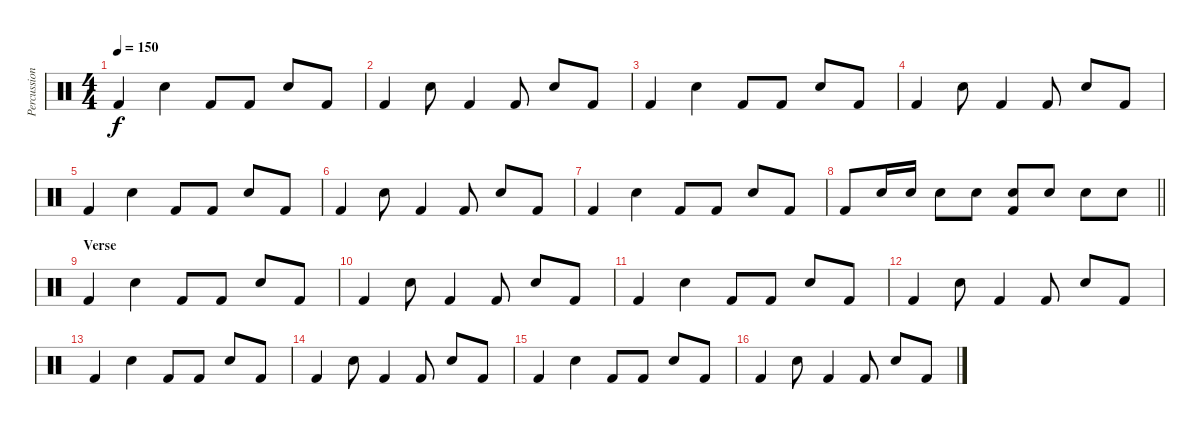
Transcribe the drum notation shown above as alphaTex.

\track ("Percussion" "Percussion") {instrument percussion}
\staff {score}
\articulation defaults
\ts (4 4)
\tempo 150
\clef neutral
\ks c "Kick (hit) 2".4{dy f} "Snare (hit) 2".4 "Kick (hit) 2".8 "Kick (hit) 2".8 "Snare (hit) 2".8 "Kick (hit) 2".8
|
"Kick (hit) 2".4 "Snare (hit) 2".8 "Kick (hit) 2".4 "Kick (hit) 2".8 "Snare (hit) 2".8 "Kick (hit) 2".8 |
"Kick (hit) 2".4 "Snare (hit) 2".4 "Kick (hit) 2".8 "Kick (hit) 2".8 "Snare (hit) 2".8 "Kick (hit) 2".8 |
"Kick (hit) 2".4 "Snare (hit) 2".8 "Kick (hit) 2".4 "Kick (hit) 2".8 "Snare (hit) 2".8 "Kick (hit) 2".8 |
"Kick (hit) 2".4 "Snare (hit) 2".4 "Kick (hit) 2".8 "Kick (hit) 2".8 "Snare (hit) 2".8 "Kick (hit) 2".8 |
"Kick (hit) 2".4 "Snare (hit) 2".8 "Kick (hit) 2".4 "Kick (hit) 2".8 "Snare (hit) 2".8 "Kick (hit) 2".8 |
"Kick (hit) 2".4 "Snare (hit) 2".4 "Kick (hit) 2".8 "Kick (hit) 2".8 "Snare (hit) 2".8 "Kick (hit) 2".8 |
\barLineRight lightlight "Kick (hit) 2".8 "Snare (hit) 2".16 "Snare (hit) 2".16 "Snare (hit) 2".8 "Snare (hit) 2".8
("Snare (hit) 2" "Kick (hit) 2").8 "Snare (hit) 2".8 "Snare (hit) 2".8 "Snare (hit) 2".8 |
\section ("" "Verse")
"Kick (hit) 2".4 "Snare (hit) 2".4 "Kick (hit) 2".8 "Kick (hit) 2".8 "Snare (hit) 2".8 "Kick (hit) 2".8 |
"Kick (hit) 2".4 "Snare (hit) 2".8 "Kick (hit) 2".4 "Kick (hit) 2".8 "Snare (hit) 2".8 "Kick (hit) 2".8 |
"Kick (hit) 2".4 "Snare (hit) 2".4 "Kick (hit) 2".8 "Kick (hit) 2".8 "Snare (hit) 2".8 "Kick (hit) 2".8 |
"Kick (hit) 2".4 "Snare (hit) 2".8 "Kick (hit) 2".4 "Kick (hit) 2".8 "Snare (hit) 2".8 "Kick (hit) 2".8 |
"Kick (hit) 2".4 "Snare (hit) 2".4 "Kick (hit) 2".8 "Kick (hit) 2".8 "Snare (hit) 2".8 "Kick (hit) 2".8 |
"Kick (hit) 2".4 "Snare (hit) 2".8 "Kick (hit) 2".4 "Kick (hit) 2".8 "Snare (hit) 2".8 "Kick (hit) 2".8 |
"Kick (hit) 2".4 "Snare (hit) 2".4 "Kick (hit) 2".8 "Kick (hit) 2".8 "Snare (hit) 2".8 "Kick (hit) 2".8 |
"Kick (hit) 2".4 "Snare (hit) 2".8 "Kick (hit) 2".4 "Kick (hit) 2".8 "Snare (hit) 2".8 "Kick (hit) 2".8
